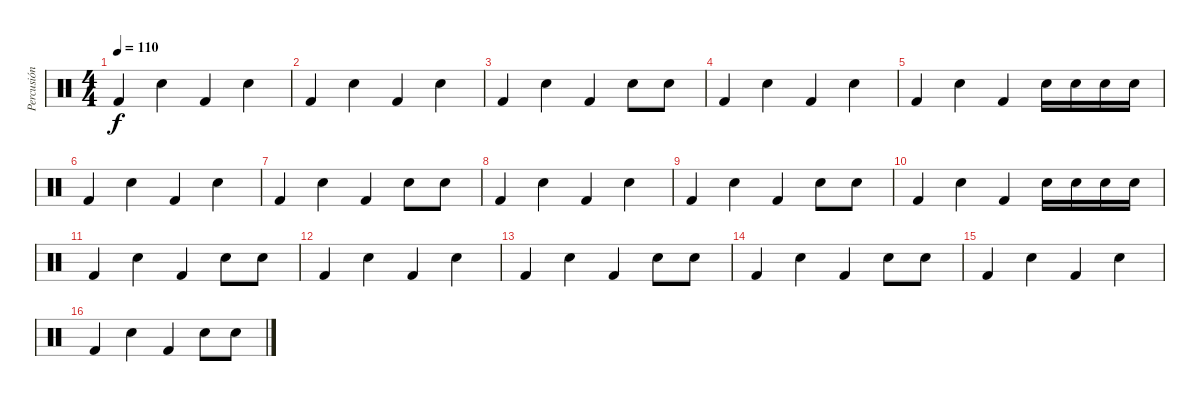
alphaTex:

\track ("Percusión" "Percusión") {instrument percussion}
\staff {score}
\articulation defaults
\ts (4 4)
\tempo 110
\clef neutral
\ks c "Kick (hit) 2".4{dy f} "Snare (hit) 2".4 "Kick (hit) 2".4 "Snare (hit) 2".4
|
"Kick (hit) 2".4 "Snare (hit) 2".4 "Kick (hit) 2".4 "Snare (hit) 2".4 |
"Kick (hit) 2".4 "Snare (hit) 2".4 "Kick (hit) 2".4 "Snare (hit) 2".8 "Snare (hit) 2".8 |
"Kick (hit) 2".4 "Snare (hit) 2".4 "Kick (hit) 2".4 "Snare (hit) 2".4 |
"Kick (hit) 2".4 "Snare (hit) 2".4 "Kick (hit) 2".4 "Snare (hit) 2".16 "Snare (hit) 2".16 "Snare (hit) 2".16 "Snare (hit) 2".16 |
"Kick (hit) 2".4 "Snare (hit) 2".4 "Kick (hit) 2".4 "Snare (hit) 2".4 |
"Kick (hit) 2".4 "Snare (hit) 2".4 "Kick (hit) 2".4 "Snare (hit) 2".8 "Snare (hit) 2".8 |
"Kick (hit) 2".4 "Snare (hit) 2".4 "Kick (hit) 2".4 "Snare (hit) 2".4 |
"Kick (hit) 2".4 "Snare (hit) 2".4 "Kick (hit) 2".4 "Snare (hit) 2".8 "Snare (hit) 2".8 |
"Kick (hit) 2".4 "Snare (hit) 2".4 "Kick (hit) 2".4 "Snare (hit) 2".16 "Snare (hit) 2".16 "Snare (hit) 2".16 "Snare (hit) 2".16 |
"Kick (hit) 2".4 "Snare (hit) 2".4 "Kick (hit) 2".4 "Snare (hit) 2".8 "Snare (hit) 2".8 |
"Kick (hit) 2".4 "Snare (hit) 2".4 "Kick (hit) 2".4 "Snare (hit) 2".4 |
"Kick (hit) 2".4 "Snare (hit) 2".4 "Kick (hit) 2".4 "Snare (hit) 2".8 "Snare (hit) 2".8 |
"Kick (hit) 2".4 "Snare (hit) 2".4 "Kick (hit) 2".4 "Snare (hit) 2".8 "Snare (hit) 2".8 |
"Kick (hit) 2".4 "Snare (hit) 2".4 "Kick (hit) 2".4 "Snare (hit) 2".4 |
"Kick (hit) 2".4 "Snare (hit) 2".4 "Kick (hit) 2".4 "Snare (hit) 2".8 "Snare (hit) 2".8
